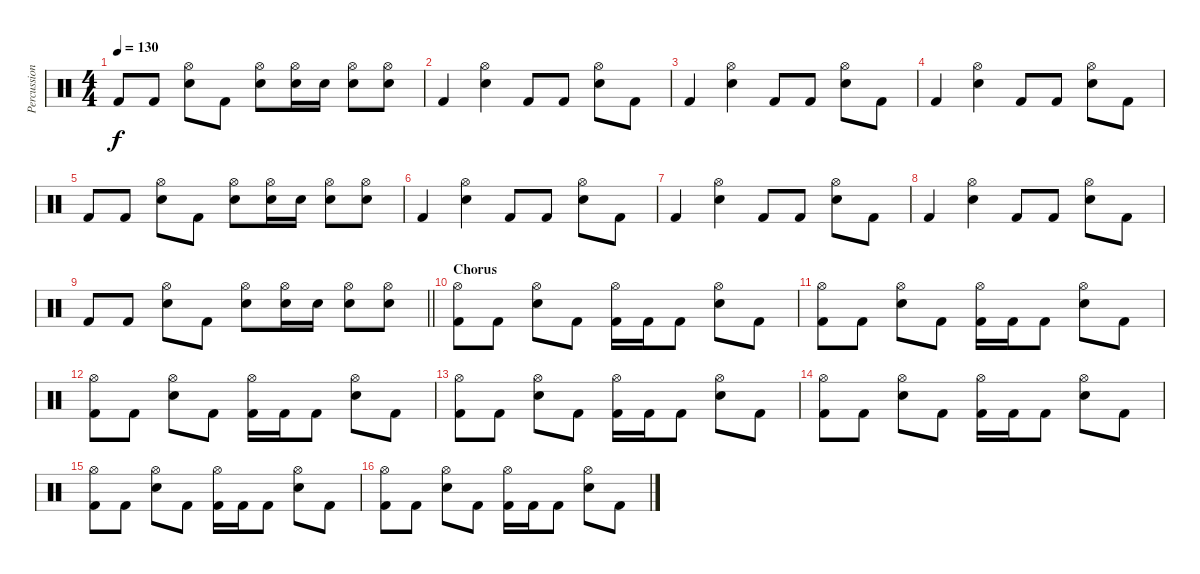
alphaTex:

\track ("Percussion" "Percussion") {instrument percussion}
\staff {score}
\articulation defaults
\ts (4 4)
\tempo 130
\clef neutral
\ks c "Kick (hit) 2".8{dy f} "Kick (hit) 2".8
("Hi-Hat (open)" "Electric Snare (hit)").8 "Kick (hit) 2".8 ("Hi-Hat (open)" "Electric Snare (hit)").8 ("Hi-Hat (open)" "Electric Snare (hit)").16 "Electric Snare (hit)".16 ("Hi-Hat (open)" "Electric Snare (hit)").8 ("Hi-Hat (open)" "Electric Snare (hit)").8 |
"Kick (hit) 2".4 ("Hi-Hat (open)" "Electric Snare (hit)").4 "Kick (hit) 2".8 "Kick (hit) 2".8 ("Hi-Hat (open)" "Electric Snare (hit)").8 "Kick (hit) 2".8 |
"Kick (hit) 2".4 ("Hi-Hat (open)" "Electric Snare (hit)").4 "Kick (hit) 2".8 "Kick (hit) 2".8 ("Hi-Hat (open)" "Electric Snare (hit)").8 "Kick (hit) 2".8 |
"Kick (hit) 2".4 ("Hi-Hat (open)" "Electric Snare (hit)").4 "Kick (hit) 2".8 "Kick (hit) 2".8 ("Hi-Hat (open)" "Electric Snare (hit)").8 "Kick (hit) 2".8 |
"Kick (hit) 2".8 "Kick (hit) 2".8 ("Hi-Hat (open)" "Electric Snare (hit)").8 "Kick (hit) 2".8 ("Hi-Hat (open)" "Electric Snare (hit)").8 ("Hi-Hat (open)" "Electric Snare (hit)").16 "Electric Snare (hit)".16 ("Hi-Hat (open)" "Electric Snare (hit)").8 ("Hi-Hat (open)" "Electric Snare (hit)").8 |
"Kick (hit) 2".4 ("Hi-Hat (open)" "Electric Snare (hit)").4 "Kick (hit) 2".8 "Kick (hit) 2".8 ("Hi-Hat (open)" "Electric Snare (hit)").8 "Kick (hit) 2".8 |
"Kick (hit) 2".4 ("Hi-Hat (open)" "Electric Snare (hit)").4 "Kick (hit) 2".8 "Kick (hit) 2".8 ("Hi-Hat (open)" "Electric Snare (hit)").8 "Kick (hit) 2".8 |
"Kick (hit) 2".4 ("Hi-Hat (open)" "Electric Snare (hit)").4 "Kick (hit) 2".8 "Kick (hit) 2".8 ("Hi-Hat (open)" "Electric Snare (hit)").8 "Kick (hit) 2".8 |
\barLineRight lightlight "Kick (hit) 2".8 "Kick (hit) 2".8
("Hi-Hat (open)" "Electric Snare (hit)").8 "Kick (hit) 2".8 ("Hi-Hat (open)" "Electric Snare (hit)").8 ("Hi-Hat (open)" "Electric Snare (hit)").16 "Electric Snare (hit)".16 ("Hi-Hat (open)" "Electric Snare (hit)").8 ("Hi-Hat (open)" "Electric Snare (hit)").8 |
\section ("" "Chorus")
("Hi-Hat (open)" "Kick (hit) 2").8 "Kick (hit) 2".8 ("Hi-Hat (open)" "Electric Snare (hit)").8 "Kick (hit) 2".8 ("Hi-Hat (open)" "Kick (hit) 2").16 "Kick (hit) 2".16 "Kick (hit) 2".8 ("Hi-Hat (open)" "Electric Snare (hit)").8 "Kick (hit) 2".8 |
("Hi-Hat (open)" "Kick (hit) 2").8 "Kick (hit) 2".8 ("Hi-Hat (open)" "Electric Snare (hit)").8 "Kick (hit) 2".8 ("Hi-Hat (open)" "Kick (hit) 2").16 "Kick (hit) 2".16 "Kick (hit) 2".8 ("Hi-Hat (open)" "Electric Snare (hit)").8 "Kick (hit) 2".8 |
("Hi-Hat (open)" "Kick (hit) 2").8 "Kick (hit) 2".8 ("Hi-Hat (open)" "Electric Snare (hit)").8 "Kick (hit) 2".8 ("Hi-Hat (open)" "Kick (hit) 2").16 "Kick (hit) 2".16 "Kick (hit) 2".8 ("Hi-Hat (open)" "Electric Snare (hit)").8 "Kick (hit) 2".8 |
("Hi-Hat (open)" "Kick (hit) 2").8 "Kick (hit) 2".8 ("Hi-Hat (open)" "Electric Snare (hit)").8 "Kick (hit) 2".8 ("Hi-Hat (open)" "Kick (hit) 2").16 "Kick (hit) 2".16 "Kick (hit) 2".8 ("Hi-Hat (open)" "Electric Snare (hit)").8 "Kick (hit) 2".8 |
("Hi-Hat (open)" "Kick (hit) 2").8 "Kick (hit) 2".8 ("Hi-Hat (open)" "Electric Snare (hit)").8 "Kick (hit) 2".8 ("Hi-Hat (open)" "Kick (hit) 2").16 "Kick (hit) 2".16 "Kick (hit) 2".8 ("Hi-Hat (open)" "Electric Snare (hit)").8 "Kick (hit) 2".8 |
("Hi-Hat (open)" "Kick (hit) 2").8 "Kick (hit) 2".8 ("Hi-Hat (open)" "Electric Snare (hit)").8 "Kick (hit) 2".8 ("Hi-Hat (open)" "Kick (hit) 2").16 "Kick (hit) 2".16 "Kick (hit) 2".8 ("Hi-Hat (open)" "Electric Snare (hit)").8 "Kick (hit) 2".8 |
("Hi-Hat (open)" "Kick (hit) 2").8 "Kick (hit) 2".8 ("Hi-Hat (open)" "Electric Snare (hit)").8 "Kick (hit) 2".8 ("Hi-Hat (open)" "Kick (hit) 2").16 "Kick (hit) 2".16 "Kick (hit) 2".8 ("Hi-Hat (open)" "Electric Snare (hit)").8 "Kick (hit) 2".8
